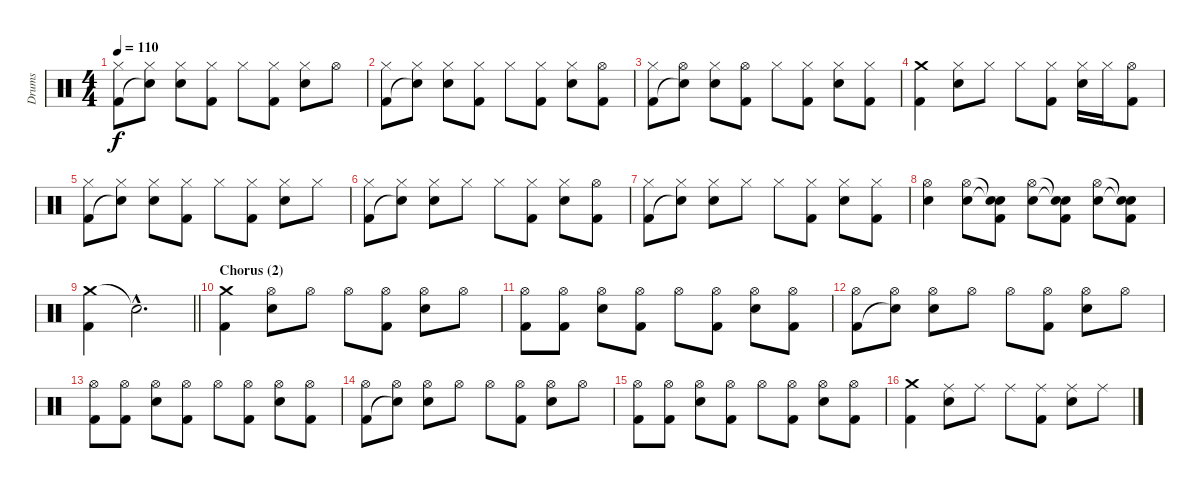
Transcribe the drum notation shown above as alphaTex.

\track ("Drums" "Drums") {instrument percussion}
\staff {score}
\articulation defaults
\ts (4 4)
\tempo 110
\clef neutral
\ks c
("Hi-Hat (closed)" "Kick (hit) 2").8{dy f} ("Hi-Hat (closed)" "Snare (hit)"{t}).8 ("Hi-Hat (closed)" "Electric Snare (hit)").8 ("Hi-Hat (closed)" "Kick (hit) 2").8 "Hi-Hat (closed)".8 ("Hi-Hat (closed)" "Kick (hit) 2").8 ("Hi-Hat (closed)" "Electric Snare (hit)").8 "Hi-Hat (open)".8 |
("Hi-Hat (closed)" "Kick (hit) 2").8 ("Hi-Hat (closed)" "Snare (hit)"{t}).8 ("Hi-Hat (closed)" "Electric Snare (hit)").8 ("Hi-Hat (closed)" "Kick (hit) 2").8 "Hi-Hat (closed)".8 ("Hi-Hat (closed)" "Kick (hit) 2").8 ("Hi-Hat (closed)" "Electric Snare (hit)").8 ("Hi-Hat (open)" "Kick (hit) 2").8 |
("Hi-Hat (closed)" "Kick (hit) 2").8 ("Hi-Hat (open)" "Snare (hit)"{t}).8 ("Hi-Hat (closed)" "Electric Snare (hit)").8 ("Hi-Hat (open)" "Kick (hit) 2").8 "Hi-Hat (closed)".8 ("Hi-Hat (closed)" "Kick (hit) 2").8 ("Hi-Hat (closed)" "Electric Snare (hit)").8 ("Hi-Hat (closed)" "Kick (hit) 2").8 |
("Crash medium (hit)" "Kick (hit) 2").4 ("Hi-Hat (closed)" "Electric Snare (hit)").8 "Hi-Hat (closed)".8 "Hi-Hat (closed)".8 ("Hi-Hat (closed)" "Kick (hit) 2").8 ("Hi-Hat (closed)" "Electric Snare (hit)").16 "Hi-Hat (closed)".16 ("Hi-Hat (open)" "Kick (hit) 2").8 |
("Hi-Hat (closed)" "Kick (hit) 2").8 ("Hi-Hat (closed)" "Snare (hit)"{t}).8 ("Hi-Hat (closed)" "Electric Snare (hit)").8 ("Hi-Hat (closed)" "Kick (hit) 2").8 "Hi-Hat (closed)".8 ("Hi-Hat (closed)" "Kick (hit) 2").8 ("Hi-Hat (closed)" "Electric Snare (hit)").8 "Hi-Hat (closed)".8 |
("Hi-Hat (closed)" "Kick (hit) 2").8 ("Hi-Hat (closed)" "Snare (hit)"{t}).8 ("Hi-Hat (closed)" "Electric Snare (hit)").8 "Hi-Hat (closed)".8 "Hi-Hat (closed)".8 ("Hi-Hat (closed)" "Kick (hit) 2").8 ("Hi-Hat (closed)" "Electric Snare (hit)").8 ("Hi-Hat (open)" "Kick (hit) 2").8 |
("Hi-Hat (closed)" "Kick (hit) 2").8 ("Hi-Hat (closed)" "Snare (hit)"{t}).8 ("Hi-Hat (closed)" "Electric Snare (hit)").8 "Hi-Hat (closed)".8 "Hi-Hat (closed)".8 ("Hi-Hat (closed)" "Kick (hit) 2").8 ("Hi-Hat (closed)" "Electric Snare (hit)").8 ("Hi-Hat (closed)" "Kick (hit) 2").8 |
("Hi-Hat (open)" "Electric Snare (hit)").4 ("Hi-Hat (open)" "Electric Snare (hit)").8 ("Snare (hit)"{t} "Snare (hit)"{t} "Kick (hit) 2").8 ("Hi-Hat (open)" "Electric Snare (hit)").8 ("Snare (hit)"{t} "Snare (hit)"{t} "Kick (hit) 2").8 ("Hi-Hat (open)" "Electric Snare (hit)").8 ("Snare (hit)"{t} "Snare (hit)"{t} "Kick (hit) 2").8 |
\barLineRight lightlight
("Crash medium (hit)" "Kick (hit) 2").4 "Snare (hit)"{hac t}.2{d} |
\section ("" "Chorus (2)")
("Crash medium (hit)" "Kick (hit) 2").4 ("Hi-Hat (open)" "Electric Snare (hit)").8 "Hi-Hat (open)".8 "Hi-Hat (open)".8 ("Hi-Hat (open)" "Kick (hit) 2").8 ("Hi-Hat (open)" "Electric Snare (hit)").8 "Hi-Hat (open)".8 |
("Hi-Hat (open)" "Kick (hit) 2").8 ("Hi-Hat (open)" "Kick (hit) 2").8 ("Hi-Hat (open)" "Electric Snare (hit)").8 ("Hi-Hat (open)" "Kick (hit) 2").8 "Hi-Hat (open)".8 ("Hi-Hat (open)" "Kick (hit) 2").8 ("Hi-Hat (open)" "Electric Snare (hit)").8 ("Hi-Hat (open)" "Kick (hit) 2").8 |
("Hi-Hat (open)" "Kick (hit) 2").8 ("Hi-Hat (open)" "Snare (hit)"{t}).8 ("Hi-Hat (open)" "Electric Snare (hit)").8 "Hi-Hat (open)".8 "Hi-Hat (open)".8 ("Hi-Hat (open)" "Kick (hit) 2").8 ("Hi-Hat (open)" "Electric Snare (hit)").8 "Hi-Hat (open)".8 |
("Hi-Hat (open)" "Kick (hit) 2").8 ("Hi-Hat (open)" "Kick (hit) 2").8 ("Hi-Hat (open)" "Electric Snare (hit)").8 ("Hi-Hat (open)" "Kick (hit) 2").8 "Hi-Hat (open)".8 ("Hi-Hat (open)" "Kick (hit) 2").8 ("Hi-Hat (open)" "Electric Snare (hit)").8 ("Hi-Hat (open)" "Kick (hit) 2").8 |
("Hi-Hat (open)" "Kick (hit) 2").8 ("Hi-Hat (open)" "Snare (hit)"{t}).8 ("Hi-Hat (open)" "Electric Snare (hit)").8 "Hi-Hat (open)".8 "Hi-Hat (open)".8 ("Hi-Hat (open)" "Kick (hit) 2").8 ("Hi-Hat (open)" "Electric Snare (hit)").8 "Hi-Hat (open)".8 |
("Hi-Hat (open)" "Kick (hit) 2").8 ("Hi-Hat (open)" "Kick (hit) 2").8 ("Hi-Hat (open)" "Electric Snare (hit)").8 ("Hi-Hat (open)" "Kick (hit) 2").8 "Hi-Hat (open)".8 ("Hi-Hat (open)" "Kick (hit) 2").8 ("Hi-Hat (open)" "Electric Snare (hit)").8 ("Hi-Hat (open)" "Kick (hit) 2").8 |
("Crash medium (hit)" "Kick (hit) 2").4 ("Ride (middle)" "Electric Snare (hit)").8 "Ride (middle)".8 "Ride (middle)".8 ("Ride (middle)" "Kick (hit) 2").8 ("Ride (middle)" "Electric Snare (hit)").8 "Ride (middle)".8
